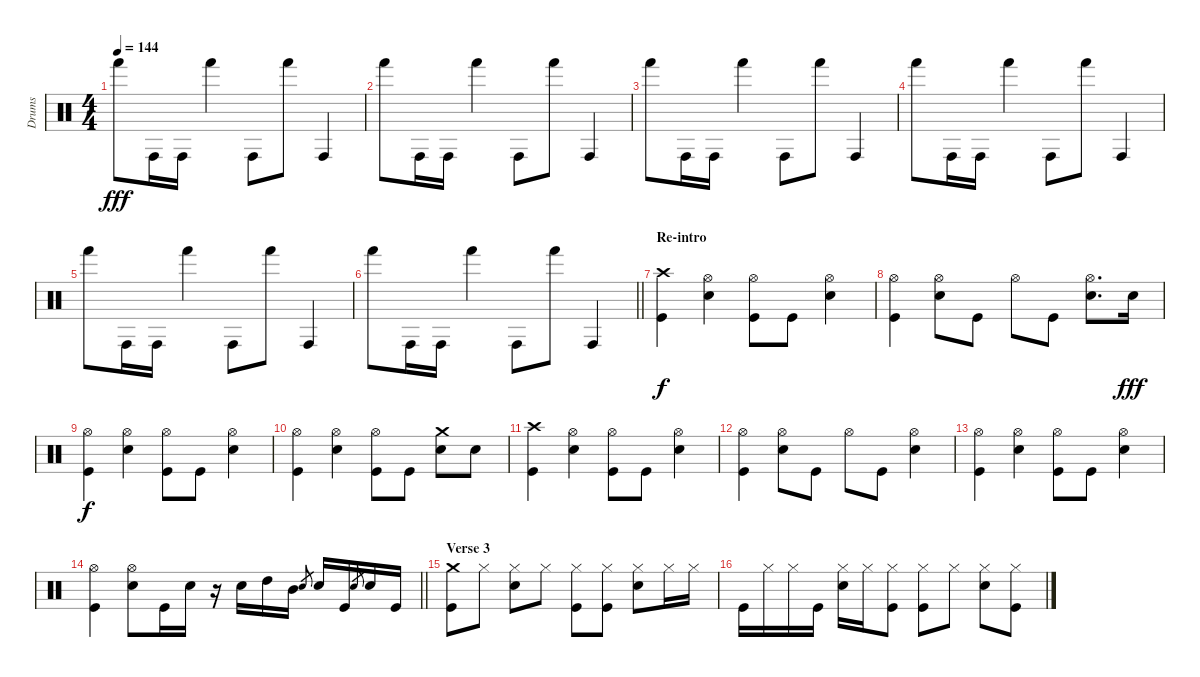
\track ("Drums" "Drums") {instrument percussion}
\staff {score}
\articulation defaults
\ts (4 4)
\tempo 144
\clef neutral
\ks c "Hand (hit)".8{dy fff} "Conga high (hit)".16 "Conga high (hit)".16 "Hand (hit)".4 "Conga high (hit)".8 "Hand (hit)".8 "Conga high (hit)".4
|
"Hand (hit)".8 "Conga high (hit)".16 "Conga high (hit)".16 "Hand (hit)".4 "Conga high (hit)".8 "Hand (hit)".8 "Conga high (hit)".4 |
"Hand (hit)".8 "Conga high (hit)".16 "Conga high (hit)".16 "Hand (hit)".4 "Conga high (hit)".8 "Hand (hit)".8 "Conga high (hit)".4 |
"Hand (hit)".8 "Conga high (hit)".16 "Conga high (hit)".16 "Hand (hit)".4 "Conga high (hit)".8 "Hand (hit)".8 "Conga high (hit)".4 |
"Hand (hit)".8 "Conga high (hit)".16 "Conga high (hit)".16 "Hand (hit)".4 "Conga high (hit)".8 "Hand (hit)".8 "Conga high (hit)".4 |
\barLineRight lightlight "Hand (hit)".8 "Conga high (hit)".16 "Conga high (hit)".16 "Hand (hit)".4 "Conga high (hit)".8 "Hand (hit)".8 "Conga high (hit)".4
|
\section ("" "Re-intro")
("Crash high (hit)" "Kick (hit)").4{dy f} ("Hi-Hat (open)" "Snare (hit) 2").4 ("Hi-Hat (open)" "Kick (hit)").8 "Kick (hit)".8 ("Hi-Hat (open)" "Snare (hit) 2").4 |
("Hi-Hat (open)" "Kick (hit)").4 ("Hi-Hat (open)" "Snare (hit) 2").8 "Kick (hit)".8 "Hi-Hat (open)".8 "Kick (hit)".8 ("Hi-Hat (open)" "Snare (hit) 2").8{d} "Snare (hit) 2".16{dy fff} |
("Hi-Hat (open)" "Kick (hit)").4{dy f} ("Hi-Hat (open)" "Snare (hit) 2").4 ("Hi-Hat (open)" "Kick (hit)").8 "Kick (hit)".8 ("Hi-Hat (open)" "Snare (hit) 2").4 |
("Hi-Hat (open)" "Kick (hit)").4 ("Hi-Hat (open)" "Snare (hit) 2").4 ("Hi-Hat (open)" "Kick (hit)").8 "Kick (hit)".8 ("Crash medium (hit)" "Snare (hit) 2").8 "Snare (hit) 2".8 |
("Crash high (hit)" "Kick (hit)").4 ("Hi-Hat (open)" "Snare (hit) 2").4 ("Hi-Hat (open)" "Kick (hit)").8 "Kick (hit)".8 ("Hi-Hat (open)" "Snare (hit) 2").4 |
("Hi-Hat (open)" "Kick (hit)").4 ("Hi-Hat (open)" "Snare (hit) 2").8 "Kick (hit)".8 "Hi-Hat (open)".8 "Kick (hit)".8 ("Hi-Hat (open)" "Snare (hit) 2").4 |
("Hi-Hat (open)" "Kick (hit)").4 ("Hi-Hat (open)" "Snare (hit) 2").4 ("Hi-Hat (open)" "Kick (hit)").8 "Kick (hit)".8 ("Hi-Hat (open)" "Snare (hit) 2").4 |
\barLineRight lightlight
("Hi-Hat (open)" "Kick (hit)").4 ("Hi-Hat (open)" "Snare (hit) 2").8 "Kick (hit)".16 "Snare (hit) 2".16 r.16 "Snare (hit) 2".16 "High Tom (hit)".16 "Mid Tom (hit)".16 "Snare (hit) 2".8{gr} "Snare (hit) 2".16 "Kick (hit)".16 "Snare (hit) 2".8{gr} "Snare (hit) 2".16 "Kick (hit)".16 |
\section ("" "Verse 3")
("Crash medium (hit)" "Kick (hit)").8 "Hi-Hat (closed)".8 ("Hi-Hat (closed)" "Snare (hit) 2").8 "Hi-Hat (closed)".8 ("Hi-Hat (closed)" "Kick (hit)").8 ("Hi-Hat (closed)" "Kick (hit)").8 ("Hi-Hat (closed)" "Snare (hit) 2").8 "Hi-Hat (closed)".16 "Hi-Hat (closed)".16 |
"Kick (hit)".16 "Hi-Hat (closed)".16 "Hi-Hat (closed)".16 "Kick (hit)".16 ("Hi-Hat (closed)" "Snare (hit) 2").16 "Hi-Hat (closed)".16 ("Hi-Hat (closed)" "Kick (hit)").8 ("Hi-Hat (closed)" "Kick (hit)").8 "Hi-Hat (closed)".8 ("Hi-Hat (closed)" "Snare (hit) 2").8 ("Hi-Hat (closed)" "Kick (hit)").8
